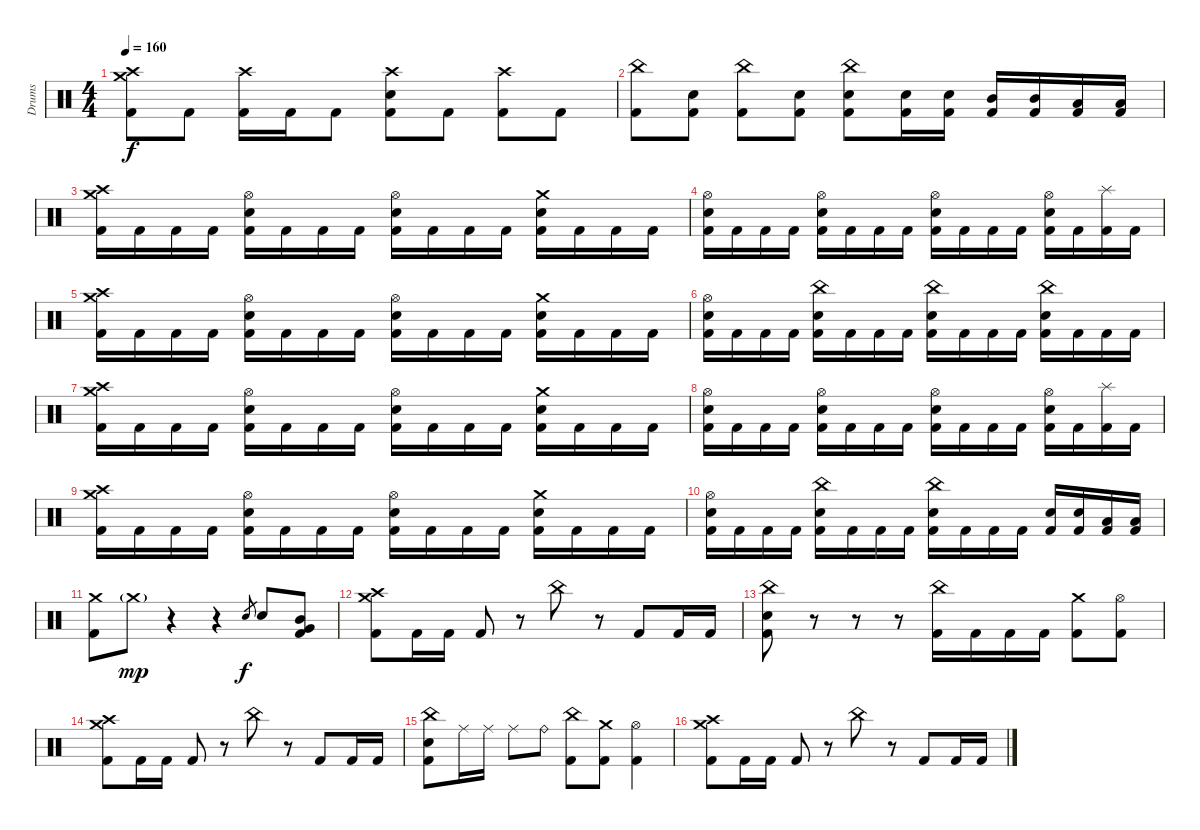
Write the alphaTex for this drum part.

\track ("Drums" "Drums") {instrument percussion}
\staff {score}
\articulation defaults
\ts (4 4)
\tempo 160
\clef neutral
\ks c
("Crash high (hit)" "Crash medium (hit)" "Kick (hit) 2").8{dy f} "Kick (hit) 2".8 ("Crash high (hit)" "Kick (hit) 2").16 "Kick (hit) 2".16 "Kick (hit) 2".8 ("Crash high (hit)" "Electric Snare (hit)" "Kick (hit) 2").8 "Kick (hit) 2".8 ("Crash high (hit)" "Kick (hit) 2").8 "Kick (hit) 2".8 |
("China (hit)" "Kick (hit) 2").8 ("Electric Snare (hit)" "Kick (hit) 2").8 ("China (hit)" "Kick (hit) 2").8 ("Electric Snare (hit)" "Kick (hit) 2").8 ("China (hit)" "Electric Snare (hit)" "Kick (hit) 2").8 ("Electric Snare (hit)" "Kick (hit) 2").16 ("Electric Snare (hit)" "Kick (hit) 2").16 ("Mid Tom (hit)" "Kick (hit) 2").16 ("Mid Tom (hit)" "Kick (hit) 2").16 ("Low Tom (hit)" "Kick (hit) 2").16 ("Low Tom (hit)" "Kick (hit) 2").16 |
("Crash high (hit)" "Crash medium (hit)" "Kick (hit) 2").16 "Kick (hit) 2".16 "Kick (hit) 2".16 "Kick (hit) 2".16 ("Hi-Hat (open)" "Electric Snare (hit)" "Kick (hit) 2").16 "Kick (hit) 2".16 "Kick (hit) 2".16 "Kick (hit) 2".16 ("Hi-Hat (open)" "Electric Snare (hit)" "Kick (hit) 2").16 "Kick (hit) 2".16 "Kick (hit) 2".16 "Kick (hit) 2".16 ("Crash medium (hit)" "Electric Snare (hit)" "Kick (hit) 2").16 "Kick (hit) 2".16 "Kick (hit) 2".16 "Kick (hit) 2".16 |
("Hi-Hat (open)" "Electric Snare (hit)" "Kick (hit) 2").16 "Kick (hit) 2".16 "Kick (hit) 2".16 "Kick (hit) 2".16 ("Hi-Hat (open)" "Electric Snare (hit)" "Kick (hit) 2").16 "Kick (hit) 2".16 "Kick (hit) 2".16 "Kick (hit) 2".16 ("Hi-Hat (open)" "Electric Snare (hit)" "Kick (hit) 2").16 "Kick (hit) 2".16 "Kick (hit) 2".16 "Kick (hit) 2".16 ("Hi-Hat (open)" "Electric Snare (hit)" "Kick (hit) 2").16 "Kick (hit) 2".16 ("Splash (hit)" "Kick (hit) 2").16 "Kick (hit) 2".16 |
("Crash high (hit)" "Crash medium (hit)" "Kick (hit) 2").16 "Kick (hit) 2".16 "Kick (hit) 2".16 "Kick (hit) 2".16 ("Hi-Hat (open)" "Electric Snare (hit)" "Kick (hit) 2").16 "Kick (hit) 2".16 "Kick (hit) 2".16 "Kick (hit) 2".16 ("Hi-Hat (open)" "Electric Snare (hit)" "Kick (hit) 2").16 "Kick (hit) 2".16 "Kick (hit) 2".16 "Kick (hit) 2".16 ("Crash medium (hit)" "Electric Snare (hit)" "Kick (hit) 2").16 "Kick (hit) 2".16 "Kick (hit) 2".16 "Kick (hit) 2".16 |
("Hi-Hat (open)" "Electric Snare (hit)" "Kick (hit) 2").16 "Kick (hit) 2".16 "Kick (hit) 2".16 "Kick (hit) 2".16 ("China (hit)" "Electric Snare (hit)" "Kick (hit) 2").16 "Kick (hit) 2".16 "Kick (hit) 2".16 "Kick (hit) 2".16 ("China (hit)" "Electric Snare (hit)" "Kick (hit) 2").16 "Kick (hit) 2".16 "Kick (hit) 2".16 "Kick (hit) 2".16 ("China (hit)" "Electric Snare (hit)" "Kick (hit) 2").16 "Kick (hit) 2".16 "Kick (hit) 2".16 "Kick (hit) 2".16 |
("Crash high (hit)" "Crash medium (hit)" "Kick (hit) 2").16 "Kick (hit) 2".16 "Kick (hit) 2".16 "Kick (hit) 2".16 ("Hi-Hat (open)" "Electric Snare (hit)" "Kick (hit) 2").16 "Kick (hit) 2".16 "Kick (hit) 2".16 "Kick (hit) 2".16 ("Hi-Hat (open)" "Electric Snare (hit)" "Kick (hit) 2").16 "Kick (hit) 2".16 "Kick (hit) 2".16 "Kick (hit) 2".16 ("Crash medium (hit)" "Electric Snare (hit)" "Kick (hit) 2").16 "Kick (hit) 2".16 "Kick (hit) 2".16 "Kick (hit) 2".16 |
("Hi-Hat (open)" "Electric Snare (hit)" "Kick (hit) 2").16 "Kick (hit) 2".16 "Kick (hit) 2".16 "Kick (hit) 2".16 ("Hi-Hat (open)" "Electric Snare (hit)" "Kick (hit) 2").16 "Kick (hit) 2".16 "Kick (hit) 2".16 "Kick (hit) 2".16 ("Hi-Hat (open)" "Electric Snare (hit)" "Kick (hit) 2").16 "Kick (hit) 2".16 "Kick (hit) 2".16 "Kick (hit) 2".16 ("Hi-Hat (open)" "Electric Snare (hit)" "Kick (hit) 2").16 "Kick (hit) 2".16 ("Splash (hit)" "Kick (hit) 2").16 "Kick (hit) 2".16 |
("Crash high (hit)" "Crash medium (hit)" "Kick (hit) 2").16 "Kick (hit) 2".16 "Kick (hit) 2".16 "Kick (hit) 2".16 ("Hi-Hat (open)" "Electric Snare (hit)" "Kick (hit) 2").16 "Kick (hit) 2".16 "Kick (hit) 2".16 "Kick (hit) 2".16 ("Hi-Hat (open)" "Electric Snare (hit)" "Kick (hit) 2").16 "Kick (hit) 2".16 "Kick (hit) 2".16 "Kick (hit) 2".16 ("Crash medium (hit)" "Electric Snare (hit)" "Kick (hit) 2").16 "Kick (hit) 2".16 "Kick (hit) 2".16 "Kick (hit) 2".16 |
("Hi-Hat (open)" "Electric Snare (hit)" "Kick (hit) 2").16 "Kick (hit) 2".16 "Kick (hit) 2".16 "Kick (hit) 2".16 ("China (hit)" "Electric Snare (hit)" "Kick (hit) 2").16 "Kick (hit) 2".16 "Kick (hit) 2".16 "Kick (hit) 2".16 ("China (hit)" "Electric Snare (hit)" "Kick (hit) 2").16 "Kick (hit) 2".16 "Kick (hit) 2".16 "Kick (hit) 2".16 ("Electric Snare (hit)" "Kick (hit) 2").16 ("Electric Snare (hit)" "Kick (hit) 2").16 ("Low Tom (hit)" "Kick (hit) 2").16 ("Low Tom (hit)" "Kick (hit) 2").16 |
("Crash medium (hit)" "Kick (hit) 2").8 "Crash medium (hit)"{g}.8{dy mp} r.4 r.4 "Electric Snare (hit)".8{gr dy f} "Electric Snare (hit)".8 ("Mid Tom (hit)" "Very Low Tom (hit)" "Kick (hit) 2").8 |
("Crash high (hit)" "Crash medium (hit)" "Kick (hit) 2").8 "Kick (hit) 2".16 "Kick (hit) 2".16 "Kick (hit) 2".8 r.8 "China (hit)".8 r.8 "Kick (hit) 2".8 "Kick (hit) 2".16 "Kick (hit) 2".16 |
("China (hit)" "Electric Snare (hit)" "Kick (hit) 2").8 r.8 r.8 r.8 ("China (hit)" "Kick (hit) 2").16 "Kick (hit) 2".16 "Kick (hit) 2".16 "Kick (hit) 2".16 ("Crash medium (hit)" "Kick (hit) 2").8 ("Hi-Hat (open)" "Kick (hit) 2").8 |
("Crash high (hit)" "Crash medium (hit)" "Kick (hit) 2").8 "Kick (hit) 2".16 "Kick (hit) 2".16 "Kick (hit) 2".8 r.8 "China (hit)".8 r.8 "Kick (hit) 2".8 "Kick (hit) 2".16 "Kick (hit) 2".16 |
("China (hit)" "Electric Snare (hit)" "Kick (hit) 2").8 "Ride (middle)".16 "Ride (middle)".16 "Ride (middle)".8 "Ride (bell)".8 ("China (hit)" "Kick (hit) 2").8 ("Crash medium (hit)" "Kick (hit) 2").8 ("Hi-Hat (open)" "Kick (hit) 2").4 |
("Crash high (hit)" "Crash medium (hit)" "Kick (hit) 2").8 "Kick (hit) 2".16 "Kick (hit) 2".16 "Kick (hit) 2".8 r.8 "China (hit)".8 r.8 "Kick (hit) 2".8 "Kick (hit) 2".16 "Kick (hit) 2".16
